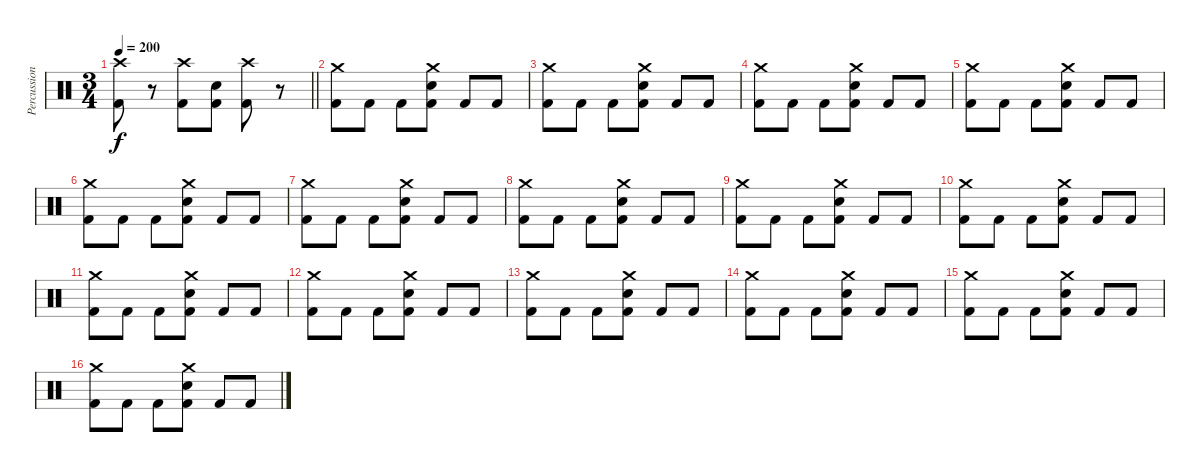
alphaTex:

\track ("Percussion" "Percussion") {instrument percussion}
\staff {score}
\articulation defaults
\ts (3 4)
\tempo 200
\clef neutral
\barLineRight lightlight
\ks c
("Crash high (hit)" "Kick (hit) 2").8{dy f} r.8 ("Crash high (hit)" "Kick (hit) 2").8 ("Electric Snare (hit)" "Kick (hit) 2").8 ("Crash high (hit)" "Kick (hit) 2").8 r.8 |
("Crash medium (hit)" "Kick (hit) 2").8 "Kick (hit) 2".8 "Kick (hit) 2".8 ("Crash medium (hit)" "Electric Snare (hit)" "Kick (hit) 2").8 "Kick (hit) 2".8 "Kick (hit) 2".8 |
("Crash medium (hit)" "Kick (hit) 2").8 "Kick (hit) 2".8 "Kick (hit) 2".8 ("Crash medium (hit)" "Electric Snare (hit)" "Kick (hit) 2").8 "Kick (hit) 2".8 "Kick (hit) 2".8 |
("Crash medium (hit)" "Kick (hit) 2").8 "Kick (hit) 2".8 "Kick (hit) 2".8 ("Crash medium (hit)" "Electric Snare (hit)" "Kick (hit) 2").8 "Kick (hit) 2".8 "Kick (hit) 2".8 |
("Crash medium (hit)" "Kick (hit) 2").8 "Kick (hit) 2".8 "Kick (hit) 2".8 ("Crash medium (hit)" "Electric Snare (hit)" "Kick (hit) 2").8 "Kick (hit) 2".8 "Kick (hit) 2".8 |
("Crash medium (hit)" "Kick (hit) 2").8 "Kick (hit) 2".8 "Kick (hit) 2".8 ("Crash medium (hit)" "Electric Snare (hit)" "Kick (hit) 2").8 "Kick (hit) 2".8 "Kick (hit) 2".8 |
("Crash medium (hit)" "Kick (hit) 2").8 "Kick (hit) 2".8 "Kick (hit) 2".8 ("Crash medium (hit)" "Electric Snare (hit)" "Kick (hit) 2").8 "Kick (hit) 2".8 "Kick (hit) 2".8 |
("Crash medium (hit)" "Kick (hit) 2").8 "Kick (hit) 2".8 "Kick (hit) 2".8 ("Crash medium (hit)" "Electric Snare (hit)" "Kick (hit) 2").8 "Kick (hit) 2".8 "Kick (hit) 2".8 |
("Crash medium (hit)" "Kick (hit) 2").8 "Kick (hit) 2".8 "Kick (hit) 2".8 ("Crash medium (hit)" "Electric Snare (hit)" "Kick (hit) 2").8 "Kick (hit) 2".8 "Kick (hit) 2".8 |
("Crash medium (hit)" "Kick (hit) 2").8 "Kick (hit) 2".8 "Kick (hit) 2".8 ("Crash medium (hit)" "Electric Snare (hit)" "Kick (hit) 2").8 "Kick (hit) 2".8 "Kick (hit) 2".8 |
("Crash medium (hit)" "Kick (hit) 2").8 "Kick (hit) 2".8 "Kick (hit) 2".8 ("Crash medium (hit)" "Electric Snare (hit)" "Kick (hit) 2").8 "Kick (hit) 2".8 "Kick (hit) 2".8 |
("Crash medium (hit)" "Kick (hit) 2").8 "Kick (hit) 2".8 "Kick (hit) 2".8 ("Crash medium (hit)" "Electric Snare (hit)" "Kick (hit) 2").8 "Kick (hit) 2".8 "Kick (hit) 2".8 |
("Crash medium (hit)" "Kick (hit) 2").8 "Kick (hit) 2".8 "Kick (hit) 2".8 ("Crash medium (hit)" "Electric Snare (hit)" "Kick (hit) 2").8 "Kick (hit) 2".8 "Kick (hit) 2".8 |
("Crash medium (hit)" "Kick (hit) 2").8 "Kick (hit) 2".8 "Kick (hit) 2".8 ("Crash medium (hit)" "Electric Snare (hit)" "Kick (hit) 2").8 "Kick (hit) 2".8 "Kick (hit) 2".8 |
("Crash medium (hit)" "Kick (hit) 2").8 "Kick (hit) 2".8 "Kick (hit) 2".8 ("Crash medium (hit)" "Electric Snare (hit)" "Kick (hit) 2").8 "Kick (hit) 2".8 "Kick (hit) 2".8 |
("Crash medium (hit)" "Kick (hit) 2").8 "Kick (hit) 2".8 "Kick (hit) 2".8 ("Crash medium (hit)" "Electric Snare (hit)" "Kick (hit) 2").8 "Kick (hit) 2".8 "Kick (hit) 2".8
